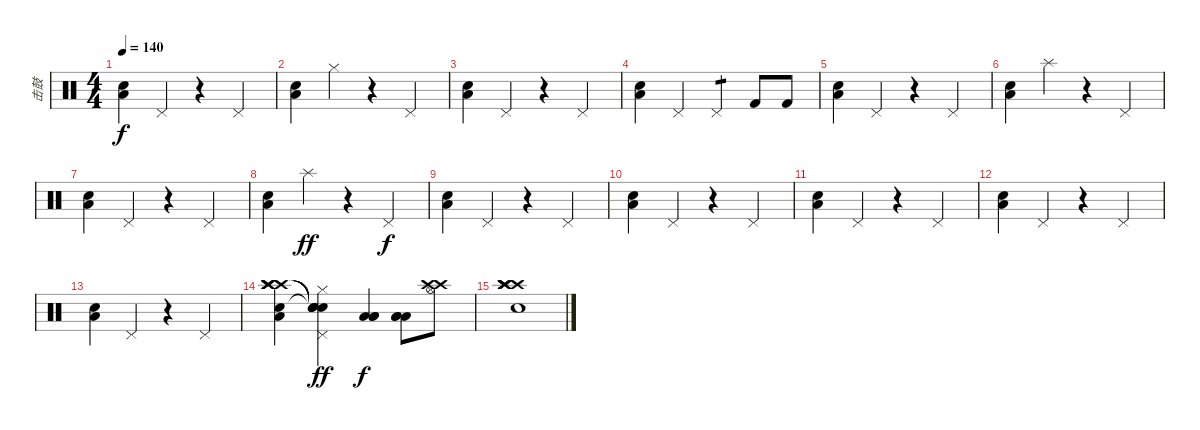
\track ("击鼓" "击鼓") {instrument percussion}
\staff {score}
\articulation defaults
\ts (4 4)
\tempo 140
\clef neutral
\ks c
("Low Floor Tom (hit)" "Snare (hit) 2").4{dy f} "Pedal Hi-Hat (hit)".4 r.4 "Pedal Hi-Hat (hit)".4 |
("Low Floor Tom (hit)" "Snare (hit) 2").4 "Hi-Hat (closed)".4 r.4 "Pedal Hi-Hat (hit)".4 |
("Low Floor Tom (hit)" "Snare (hit) 2").4 "Pedal Hi-Hat (hit)".4 r.4 "Pedal Hi-Hat (hit)".4 |
("Low Floor Tom (hit)" "Snare (hit) 2").4 "Pedal Hi-Hat (hit)".4 "Pedal Hi-Hat (hit)".4{tp 1} "Kick (hit) 2".8 "Kick (hit) 2".8 |
("Low Floor Tom (hit)" "Snare (hit) 2").4 "Pedal Hi-Hat (hit)".4 r.4 "Pedal Hi-Hat (hit)".4 |
("Low Floor Tom (hit)" "Snare (hit) 2").4 "Splash (hit)".4 r.4 "Pedal Hi-Hat (hit)".4 |
("Low Floor Tom (hit)" "Snare (hit) 2").4 "Pedal Hi-Hat (hit)".4 r.4 "Pedal Hi-Hat (hit)".4 |
("Low Floor Tom (hit)" "Snare (hit) 2").4 "Splash (hit)".4{dy ff} r.4 "Pedal Hi-Hat (hit)".4{dy f} |
("Low Floor Tom (hit)" "Snare (hit) 2").4 "Pedal Hi-Hat (hit)".4 r.4 "Pedal Hi-Hat (hit)".4 |
("Low Floor Tom (hit)" "Snare (hit) 2").4 "Pedal Hi-Hat (hit)".4 r.4 "Pedal Hi-Hat (hit)".4 |
("Low Floor Tom (hit)" "Snare (hit) 2").4 "Pedal Hi-Hat (hit)".4 r.4 "Pedal Hi-Hat (hit)".4 |
("Low Floor Tom (hit)" "Snare (hit) 2").4 "Pedal Hi-Hat (hit)".4 r.4 "Pedal Hi-Hat (hit)".4 |
("Low Floor Tom (hit)" "Snare (hit) 2").4 "Pedal Hi-Hat (hit)".4 r.4 "Pedal Hi-Hat (hit)".4 |
("Crash high (hit)" "Crash high (hit)" "Crash high (hit)" "Low Floor Tom (hit)" "Snare (hit) 2" "Crash high (hit)").4 ("Snare (hit)"{t} "Snare (hit)"{t} "Pedal Hi-Hat (hit)" "Hi-Hat (closed)" "Snare (hit)"{t} "Snare (hit)"{t}).4{dy ff} ("Low Tom (hit)" "Low Tom (hit)" "Low Tom (hit)").4{dy f} ("Low Tom (hit)" "Low Tom (hit)" "Low Tom (hit)").8 ("Crash high (hit)" "Hi-Hat (open)" "Crash high (hit)").8 |
("Crash high (hit)" "Crash high (hit)" "Crash high (hit)" "Crash high (hit)" "Snare (hit) 2" "Crash high (hit)").1
